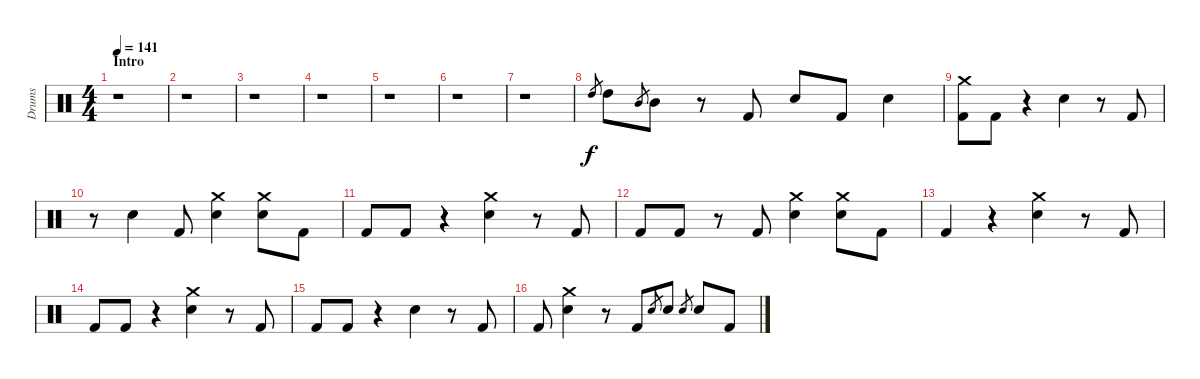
\track ("Drums" "Drums") {instrument percussion}
\staff {score}
\articulation defaults
\ts (4 4)
\section ("" "Intro")
\tempo 141
\clef neutral
\ks c
r.1{dy f} |
r.1 |
r.1 |
r.1 |
r.1 |
r.1 |
r.1 |
"High Tom (hit)".8{gr} "High Tom (hit)".8 "Mid Tom (hit)".8{gr} "Mid Tom (hit)".8 r.8 "Kick (hit) 2".8 "Electric Snare (hit)".8 "Kick (hit) 2".8 "Electric Snare (hit)".4 |
("Crash medium (hit)" "Kick (hit) 2").8 "Kick (hit) 2".8 r.4 "Electric Snare (hit)".4 r.8 "Kick (hit) 2".8 |
r.8 "Electric Snare (hit)".4 "Kick (hit) 2".8 ("Crash medium (hit)" "Electric Snare (hit)").4 ("Crash medium (hit)" "Electric Snare (hit)").8 "Kick (hit) 2".8 |
"Kick (hit) 2".8 "Kick (hit) 2".8 r.4 ("Crash medium (hit)" "Electric Snare (hit)").4 r.8 "Kick (hit) 2".8 |
"Kick (hit) 2".8 "Kick (hit) 2".8 r.8 "Kick (hit) 2".8 ("Crash medium (hit)" "Electric Snare (hit)").4 ("Crash medium (hit)" "Electric Snare (hit)").8 "Kick (hit) 2".8 |
"Kick (hit) 2".4 r.4 ("Crash medium (hit)" "Electric Snare (hit)").4 r.8 "Kick (hit) 2".8 |
"Kick (hit) 2".8 "Kick (hit) 2".8 r.4 ("Crash medium (hit)" "Electric Snare (hit)").4 r.8 "Kick (hit) 2".8 |
"Kick (hit) 2".8 "Kick (hit) 2".8 r.4 "Electric Snare (hit)".4 r.8 "Kick (hit) 2".8 |
"Kick (hit) 2".8 ("Crash medium (hit)" "Electric Snare (hit)").4 r.8 "Kick (hit) 2".8 "Electric Snare (hit)".8{gr} "Electric Snare (hit)".8 "Electric Snare (hit)".8{gr} "Electric Snare (hit)".8 "Kick (hit) 2".8
